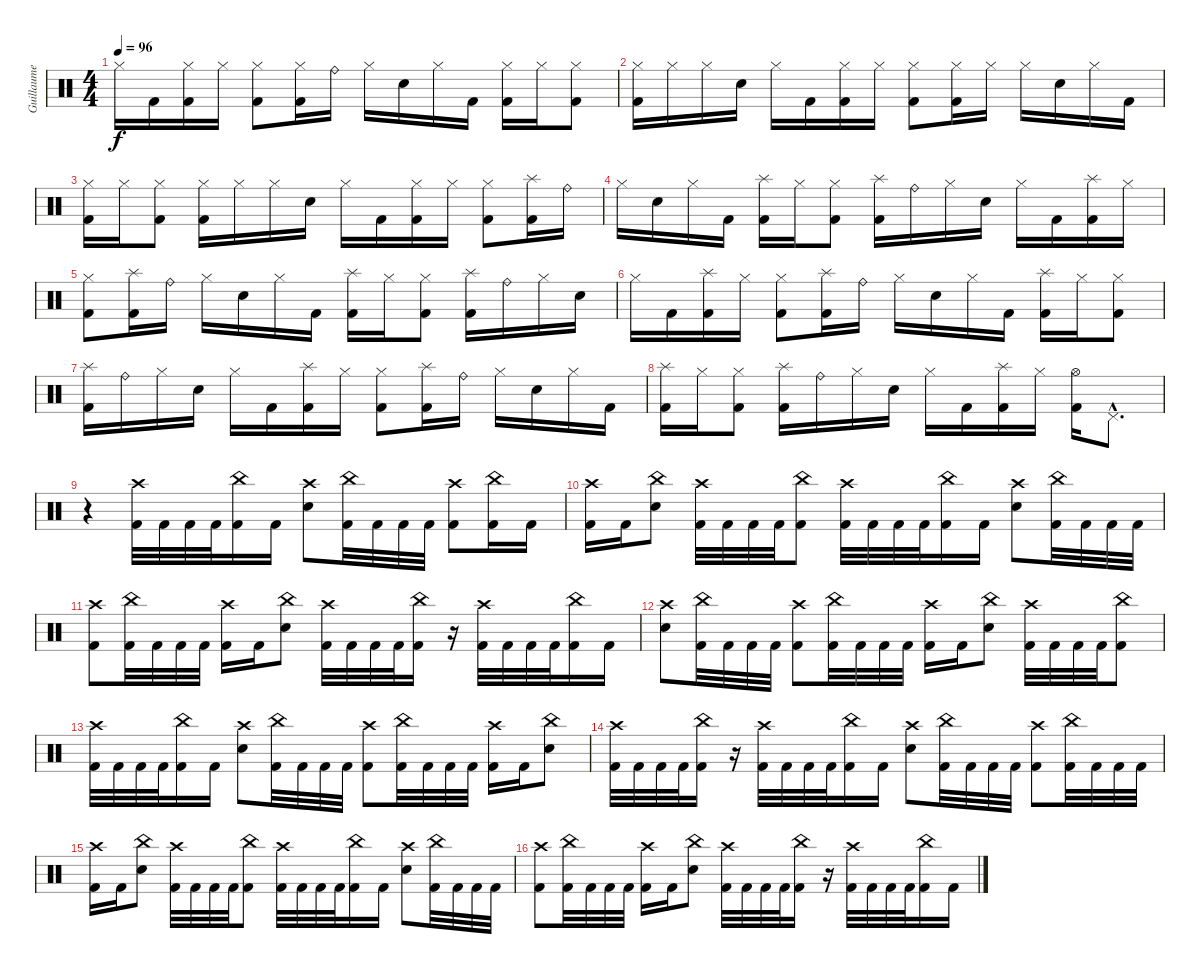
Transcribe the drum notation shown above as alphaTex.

\track ("Guillaume" "Guillaume") {instrument percussion}
\staff {score}
\articulation defaults
\ts (4 4)
\tempo 96
\clef neutral
\ks c "Hi-Hat (closed)".16{dy f} "Kick (hit) 2".16
("Hi-Hat (closed)" "Kick (hit) 2").16 "Hi-Hat (closed)".16 ("Hi-Hat (closed)" "Kick (hit) 2").8 ("Hi-Hat (closed)" "Kick (hit) 2").16 "Ride (bell)".16 "Hi-Hat (closed)".16 "Electric Snare (hit)".16 "Hi-Hat (closed)".16 "Kick (hit) 2".16 ("Hi-Hat (closed)" "Kick (hit) 2").16 "Hi-Hat (closed)".16 ("Hi-Hat (closed)" "Kick (hit) 2").8 |
("Hi-Hat (closed)" "Kick (hit) 2").16 "Hi-Hat (closed)".16 "Hi-Hat (closed)".16 "Electric Snare (hit)".16 "Hi-Hat (closed)".16 "Kick (hit) 2".16 ("Hi-Hat (closed)" "Kick (hit) 2").16 "Hi-Hat (closed)".16 ("Hi-Hat (closed)" "Kick (hit) 2").8 ("Hi-Hat (closed)" "Kick (hit) 2").16 "Hi-Hat (closed)".16 "Hi-Hat (closed)".16 "Electric Snare (hit)".16 "Hi-Hat (closed)".16 "Kick (hit) 2".16 |
("Hi-Hat (closed)" "Kick (hit) 2").16 "Hi-Hat (closed)".16 ("Hi-Hat (closed)" "Kick (hit) 2").8 ("Hi-Hat (closed)" "Kick (hit) 2").16 "Hi-Hat (closed)".16 "Hi-Hat (closed)".16 "Electric Snare (hit)".16 "Hi-Hat (closed)".16 "Kick (hit) 2".16 ("Hi-Hat (closed)" "Kick (hit) 2").16 "Hi-Hat (closed)".16 ("Hi-Hat (closed)" "Kick (hit) 2").8 ("Splash (hit)" "Kick (hit) 2").16 "Ride (bell)".16 |
"Hi-Hat (closed)".16 "Electric Snare (hit)".16 "Hi-Hat (closed)".16 "Kick (hit) 2".16 ("Splash (hit)" "Kick (hit) 2").16 "Hi-Hat (closed)".16 ("Hi-Hat (closed)" "Kick (hit) 2").8 ("Splash (hit)" "Kick (hit) 2").16 "Ride (bell)".16 "Hi-Hat (closed)".16 "Electric Snare (hit)".16 "Hi-Hat (closed)".16 "Kick (hit) 2".16 ("Splash (hit)" "Kick (hit) 2").16 "Hi-Hat (closed)".16 |
("Hi-Hat (closed)" "Kick (hit) 2").8 ("Splash (hit)" "Kick (hit) 2").16 "Ride (bell)".16 "Hi-Hat (closed)".16 "Electric Snare (hit)".16 "Hi-Hat (closed)".16 "Kick (hit) 2".16 ("Splash (hit)" "Kick (hit) 2").16 "Hi-Hat (closed)".16 ("Hi-Hat (closed)" "Kick (hit) 2").8 ("Splash (hit)" "Kick (hit) 2").16 "Ride (bell)".16 "Hi-Hat (closed)".16 "Electric Snare (hit)".16 |
"Hi-Hat (closed)".16 "Kick (hit) 2".16 ("Splash (hit)" "Kick (hit) 2").16 "Hi-Hat (closed)".16 ("Hi-Hat (closed)" "Kick (hit) 2").8 ("Splash (hit)" "Kick (hit) 2").16 "Ride (bell)".16 "Hi-Hat (closed)".16 "Electric Snare (hit)".16 "Hi-Hat (closed)".16 "Kick (hit) 2".16 ("Splash (hit)" "Kick (hit) 2").16 "Hi-Hat (closed)".16 ("Hi-Hat (closed)" "Kick (hit) 2").8 |
("Splash (hit)" "Kick (hit) 2").16 "Ride (bell)".16 "Hi-Hat (closed)".16 "Electric Snare (hit)".16 "Hi-Hat (closed)".16 "Kick (hit) 2".16 ("Splash (hit)" "Kick (hit) 2").16 "Hi-Hat (closed)".16 ("Hi-Hat (closed)" "Kick (hit) 2").8 ("Splash (hit)" "Kick (hit) 2").16 "Ride (bell)".16 "Hi-Hat (closed)".16 "Electric Snare (hit)".16 "Hi-Hat (closed)".16 "Kick (hit) 2".16 |
("Splash (hit)" "Kick (hit) 2").16 "Hi-Hat (closed)".16 ("Hi-Hat (closed)" "Kick (hit) 2").8 ("Splash (hit)" "Kick (hit) 2").16 "Ride (bell)".16 "Hi-Hat (closed)".16 "Electric Snare (hit)".16 "Hi-Hat (closed)".16 "Kick (hit) 2".16 ("Splash (hit)" "Kick (hit) 2").16 "Hi-Hat (closed)".16 ("Hi-Hat (open)" "Kick (hit) 2").16 "Pedal Hi-Hat (hit)"{hac}.8{d} |
\section ("" "")
r.4 ("Crash high (hit)" "Kick (hit) 2").32 "Kick (hit) 2".32 "Kick (hit) 2".32 "Kick (hit) 2".32 ("China (hit)" "Kick (hit) 2").16 "Kick (hit) 2".16 ("Crash high (hit)" "Electric Snare (hit)").8 ("China (hit)" "Kick (hit) 2").32 "Kick (hit) 2".32 "Kick (hit) 2".32 "Kick (hit) 2".32 ("Crash high (hit)" "Kick (hit) 2").8 ("China (hit)" "Kick (hit) 2").16 "Kick (hit) 2".16 |
("Crash high (hit)" "Kick (hit) 2").16 "Kick (hit) 2".16 ("China (hit)" "Electric Snare (hit)").8 ("Crash high (hit)" "Kick (hit) 2").32 "Kick (hit) 2".32 "Kick (hit) 2".32 "Kick (hit) 2".32 ("China (hit)" "Kick (hit) 2").8 ("Crash high (hit)" "Kick (hit) 2").32 "Kick (hit) 2".32 "Kick (hit) 2".32 "Kick (hit) 2".32 ("China (hit)" "Kick (hit) 2").16 "Kick (hit) 2".16 ("Crash high (hit)" "Electric Snare (hit)").8 ("China (hit)" "Kick (hit) 2").32 "Kick (hit) 2".32 "Kick (hit) 2".32 "Kick (hit) 2".32 |
("Crash high (hit)" "Kick (hit) 2").8 ("China (hit)" "Kick (hit) 2").32 "Kick (hit) 2".32 "Kick (hit) 2".32 "Kick (hit) 2".32 ("Crash high (hit)" "Kick (hit) 2").16 "Kick (hit) 2".16 ("China (hit)" "Electric Snare (hit)").8 ("Crash high (hit)" "Kick (hit) 2").32 "Kick (hit) 2".32 "Kick (hit) 2".32 "Kick (hit) 2".32 ("China (hit)" "Kick (hit) 2").16 r.16 ("Crash high (hit)" "Kick (hit) 2").32 "Kick (hit) 2".32 "Kick (hit) 2".32 "Kick (hit) 2".32 ("China (hit)" "Kick (hit) 2").16 "Kick (hit) 2".16 |
("Crash high (hit)" "Electric Snare (hit)").8 ("China (hit)" "Kick (hit) 2").32 "Kick (hit) 2".32 "Kick (hit) 2".32 "Kick (hit) 2".32 ("Crash high (hit)" "Kick (hit) 2").8 ("China (hit)" "Kick (hit) 2").32 "Kick (hit) 2".32 "Kick (hit) 2".32 "Kick (hit) 2".32 ("Crash high (hit)" "Kick (hit) 2").16 "Kick (hit) 2".16 ("China (hit)" "Electric Snare (hit)").8 ("Crash high (hit)" "Kick (hit) 2").32 "Kick (hit) 2".32 "Kick (hit) 2".32 "Kick (hit) 2".32 ("China (hit)" "Kick (hit) 2").8 |
("Crash high (hit)" "Kick (hit) 2").32 "Kick (hit) 2".32 "Kick (hit) 2".32 "Kick (hit) 2".32 ("China (hit)" "Kick (hit) 2").16 "Kick (hit) 2".16 ("Crash high (hit)" "Electric Snare (hit)").8 ("China (hit)" "Kick (hit) 2").32 "Kick (hit) 2".32 "Kick (hit) 2".32 "Kick (hit) 2".32 ("Crash high (hit)" "Kick (hit) 2").8 ("China (hit)" "Kick (hit) 2").32 "Kick (hit) 2".32 "Kick (hit) 2".32 "Kick (hit) 2".32 ("Crash high (hit)" "Kick (hit) 2").16 "Kick (hit) 2".16 ("China (hit)" "Electric Snare (hit)").8 |
("Crash high (hit)" "Kick (hit) 2").32 "Kick (hit) 2".32 "Kick (hit) 2".32 "Kick (hit) 2".32 ("China (hit)" "Kick (hit) 2").16 r.16 ("Crash high (hit)" "Kick (hit) 2").32 "Kick (hit) 2".32 "Kick (hit) 2".32 "Kick (hit) 2".32 ("China (hit)" "Kick (hit) 2").16 "Kick (hit) 2".16 ("Crash high (hit)" "Electric Snare (hit)").8 ("China (hit)" "Kick (hit) 2").32 "Kick (hit) 2".32 "Kick (hit) 2".32 "Kick (hit) 2".32 ("Crash high (hit)" "Kick (hit) 2").8 ("China (hit)" "Kick (hit) 2").32 "Kick (hit) 2".32 "Kick (hit) 2".32 "Kick (hit) 2".32 |
("Crash high (hit)" "Kick (hit) 2").16 "Kick (hit) 2".16 ("China (hit)" "Electric Snare (hit)").8 ("Crash high (hit)" "Kick (hit) 2").32 "Kick (hit) 2".32 "Kick (hit) 2".32 "Kick (hit) 2".32 ("China (hit)" "Kick (hit) 2").8 ("Crash high (hit)" "Kick (hit) 2").32 "Kick (hit) 2".32 "Kick (hit) 2".32 "Kick (hit) 2".32 ("China (hit)" "Kick (hit) 2").16 "Kick (hit) 2".16 ("Crash high (hit)" "Electric Snare (hit)").8 ("China (hit)" "Kick (hit) 2").32 "Kick (hit) 2".32 "Kick (hit) 2".32 "Kick (hit) 2".32 |
("Crash high (hit)" "Kick (hit) 2").8 ("China (hit)" "Kick (hit) 2").32 "Kick (hit) 2".32 "Kick (hit) 2".32 "Kick (hit) 2".32 ("Crash high (hit)" "Kick (hit) 2").16 "Kick (hit) 2".16 ("China (hit)" "Electric Snare (hit)").8 ("Crash high (hit)" "Kick (hit) 2").32 "Kick (hit) 2".32 "Kick (hit) 2".32 "Kick (hit) 2".32 ("China (hit)" "Kick (hit) 2").16 r.16 ("Crash high (hit)" "Kick (hit) 2").32 "Kick (hit) 2".32 "Kick (hit) 2".32 "Kick (hit) 2".32 ("China (hit)" "Kick (hit) 2").16 "Kick (hit) 2".16
